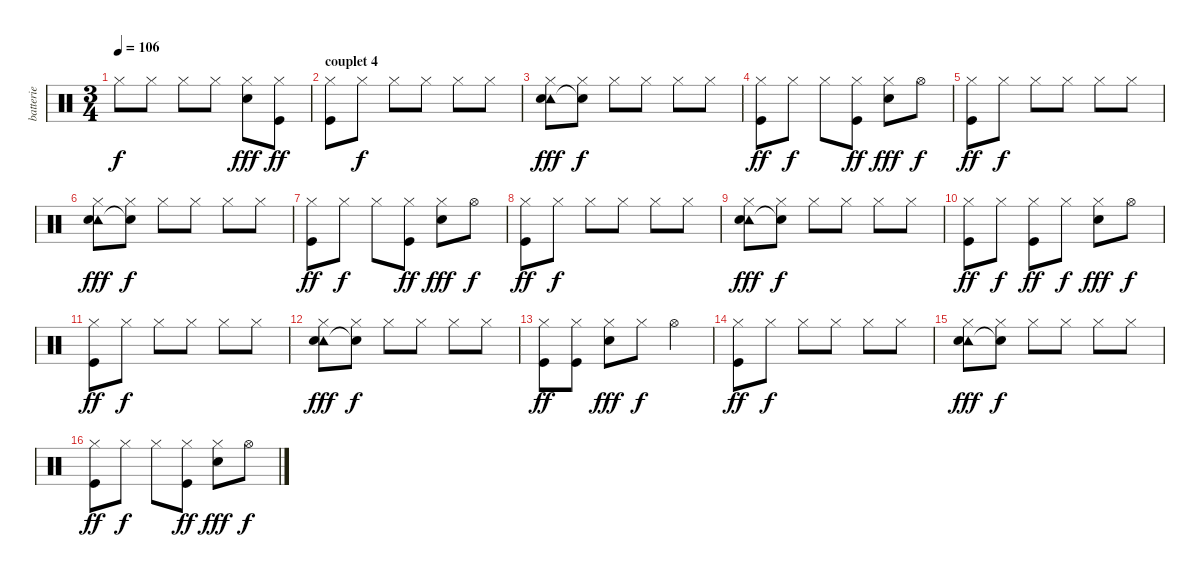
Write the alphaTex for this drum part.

\track ("batterie" "batterie") {instrument percussion}
\staff {score}
\articulation defaults
\ts (3 4)
\tempo 106
\clef neutral
\ks c "Hi-Hat (closed)".8{dy f} "Hi-Hat (closed)".8 "Hi-Hat (closed)".8 "Hi-Hat (closed)".8
("Hi-Hat (closed)" "Electric Snare (hit)").8{dy fff} ("Hi-Hat (closed)" "Kick (hit)").8{dy ff} |
\section ("" "couplet 4")
("Hi-Hat (closed)" "Kick (hit)").8 "Hi-Hat (closed)".8{dy f} "Hi-Hat (closed)".8 "Hi-Hat (closed)".8 "Hi-Hat (closed)".8 "Hi-Hat (closed)".8 |
("Tambourine (hit)" "Hi-Hat (closed)" "Electric Snare (hit)").8{dy fff} ("Snare (hit)"{t} "Hi-Hat (closed)").8{dy f} "Hi-Hat (closed)".8 "Hi-Hat (closed)".8 "Hi-Hat (closed)".8 "Hi-Hat (closed)".8 |
("Hi-Hat (closed)" "Kick (hit)").8{dy ff} "Hi-Hat (closed)".8{dy f} "Hi-Hat (closed)".8 ("Hi-Hat (closed)" "Kick (hit)").8{dy ff} ("Hi-Hat (closed)" "Electric Snare (hit)").8{dy fff} "Hi-Hat (open)".8{dy f} |
("Hi-Hat (closed)" "Kick (hit)").8{dy ff} "Hi-Hat (closed)".8{dy f} "Hi-Hat (closed)".8 "Hi-Hat (closed)".8 "Hi-Hat (closed)".8 "Hi-Hat (closed)".8 |
("Tambourine (hit)" "Hi-Hat (closed)" "Electric Snare (hit)").8{dy fff} ("Snare (hit)"{t} "Hi-Hat (closed)").8{dy f} "Hi-Hat (closed)".8 "Hi-Hat (closed)".8 "Hi-Hat (closed)".8 "Hi-Hat (closed)".8 |
("Hi-Hat (closed)" "Kick (hit)").8{dy ff} "Hi-Hat (closed)".8{dy f} "Hi-Hat (closed)".8 ("Hi-Hat (closed)" "Kick (hit)").8{dy ff} ("Hi-Hat (closed)" "Electric Snare (hit)").8{dy fff} "Hi-Hat (open)".8{dy f} |
("Hi-Hat (closed)" "Kick (hit)").8{dy ff} "Hi-Hat (closed)".8{dy f} "Hi-Hat (closed)".8 "Hi-Hat (closed)".8 "Hi-Hat (closed)".8 "Hi-Hat (closed)".8 |
("Tambourine (hit)" "Hi-Hat (closed)" "Electric Snare (hit)").8{dy fff} ("Snare (hit)"{t} "Hi-Hat (closed)").8{dy f} "Hi-Hat (closed)".8 "Hi-Hat (closed)".8 "Hi-Hat (closed)".8 "Hi-Hat (closed)".8 |
("Hi-Hat (closed)" "Kick (hit)").8{dy ff} "Hi-Hat (closed)".8{dy f} ("Hi-Hat (closed)" "Kick (hit)").8{dy ff} "Hi-Hat (closed)".8{dy f} ("Hi-Hat (closed)" "Electric Snare (hit)").8{dy fff} "Hi-Hat (open)".8{dy f} |
("Hi-Hat (closed)" "Kick (hit)").8{dy ff} "Hi-Hat (closed)".8{dy f} "Hi-Hat (closed)".8 "Hi-Hat (closed)".8 "Hi-Hat (closed)".8 "Hi-Hat (closed)".8 |
("Tambourine (hit)" "Hi-Hat (closed)" "Electric Snare (hit)").8{dy fff} ("Snare (hit)"{t} "Hi-Hat (closed)").8{dy f} "Hi-Hat (closed)".8 "Hi-Hat (closed)".8 "Hi-Hat (closed)".8 "Hi-Hat (closed)".8 |
("Hi-Hat (closed)" "Kick (hit)").8{dy ff} ("Hi-Hat (closed)" "Kick (hit)").8 ("Hi-Hat (closed)" "Electric Snare (hit)").8{dy fff} "Hi-Hat (closed)".8{dy f} "Hi-Hat (open)".4 |
("Hi-Hat (closed)" "Kick (hit)").8{dy ff} "Hi-Hat (closed)".8{dy f} "Hi-Hat (closed)".8 "Hi-Hat (closed)".8 "Hi-Hat (closed)".8 "Hi-Hat (closed)".8 |
("Tambourine (hit)" "Hi-Hat (closed)" "Electric Snare (hit)").8{dy fff} ("Snare (hit)"{t} "Hi-Hat (closed)").8{dy f} "Hi-Hat (closed)".8 "Hi-Hat (closed)".8 "Hi-Hat (closed)".8 "Hi-Hat (closed)".8 |
("Hi-Hat (closed)" "Kick (hit)").8{dy ff} "Hi-Hat (closed)".8{dy f} "Hi-Hat (closed)".8 ("Hi-Hat (closed)" "Kick (hit)").8{dy ff} ("Hi-Hat (closed)" "Electric Snare (hit)").8{dy fff} "Hi-Hat (open)".8{dy f}
